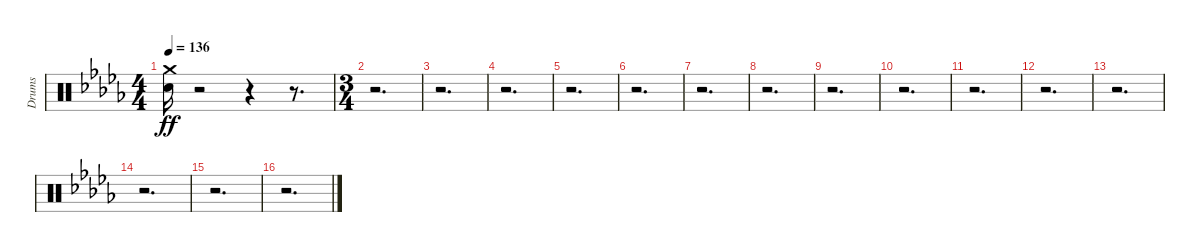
\track ("Drums" "Drums") {instrument percussion}
\staff {score}
\articulation defaults
\ts (4 4)
\tempo 136
\clef neutral
\ks db
("Electric Snare (hit)" "Crash medium (hit)").16{dy ff} r.2 r.4 r.8{d} |
\ts (3 4)
r.2{d} |
r.2{d} |
r.2{d} |
r.2{d} |
r.2{d} |
r.2{d} |
r.2{d} |
r.2{d} |
r.2{d} |
r.2{d} |
r.2{d} |
r.2{d} |
r.2{d} |
r.2{d} |
r.2{d}
